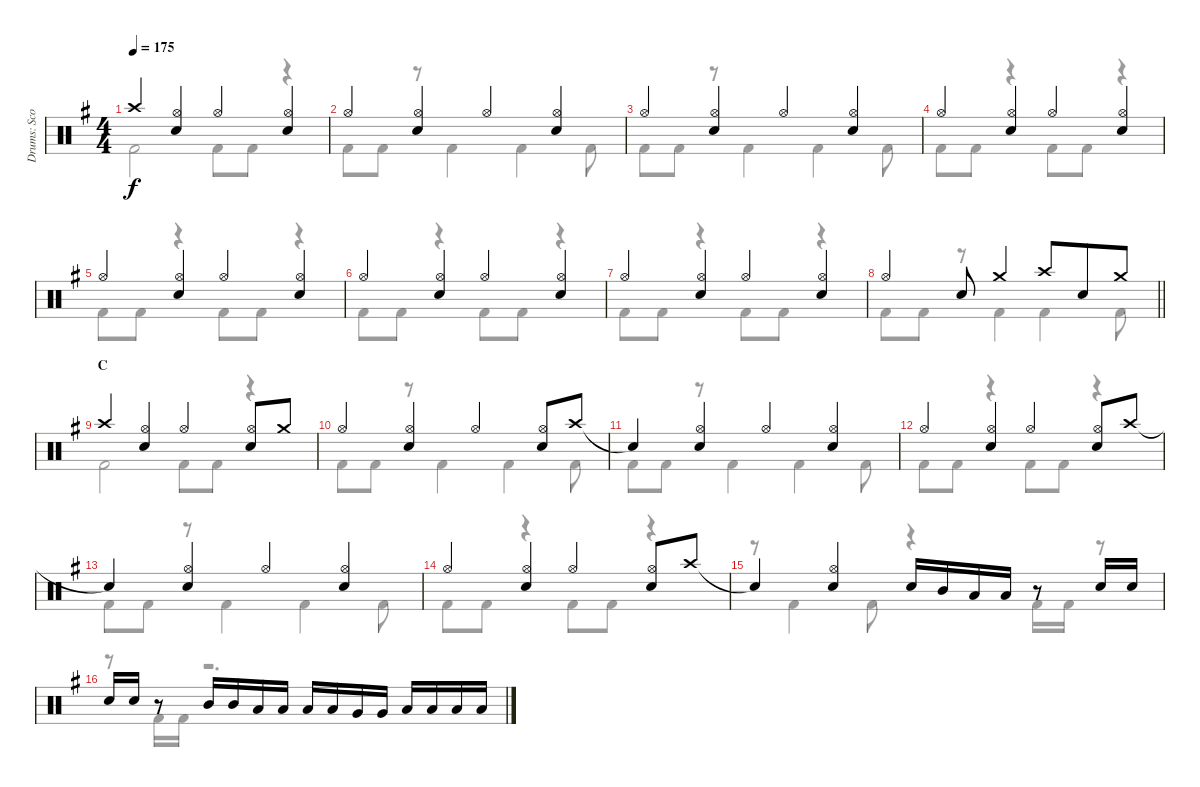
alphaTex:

\track ("Drums: Scott" "Drums: Sco") {instrument percussion}
\staff {score}
\articulation defaults
\voice
\ts (4 4)
\tempo 175
\clef neutral
\ks g "Crash high (hit)".4{dy f}
("Hi-Hat (open)" "Snare (hit) 2").4 "Hi-Hat (open)".4 ("Hi-Hat (open)" "Snare (hit) 2").4 |
"Hi-Hat (open)".4 ("Hi-Hat (open)" "Snare (hit) 2").4 "Hi-Hat (open)".4 ("Hi-Hat (open)" "Snare (hit) 2").4 |
"Hi-Hat (open)".4 ("Hi-Hat (open)" "Snare (hit) 2").4 "Hi-Hat (open)".4 ("Hi-Hat (open)" "Snare (hit) 2").4 |
"Hi-Hat (open)".4 ("Hi-Hat (open)" "Snare (hit) 2").4 "Hi-Hat (open)".4 ("Hi-Hat (open)" "Snare (hit) 2").4 |
"Hi-Hat (open)".4 ("Hi-Hat (open)" "Snare (hit) 2").4 "Hi-Hat (open)".4 ("Hi-Hat (open)" "Snare (hit) 2").4 |
"Hi-Hat (open)".4 ("Hi-Hat (open)" "Snare (hit) 2").4 "Hi-Hat (open)".4 ("Hi-Hat (open)" "Snare (hit) 2").4 |
"Hi-Hat (open)".4 ("Hi-Hat (open)" "Snare (hit) 2").4 "Hi-Hat (open)".4 ("Hi-Hat (open)" "Snare (hit) 2").4 |
\barLineRight lightlight "Hi-Hat (open)".4 "Snare (hit) 2".8 "Crash medium (hit)".4 "Crash high (hit)".8{beam merge} "Snare (hit) 2".8 "Crash medium (hit)".8
|
\section ("" "C")
"Crash high (hit)".4 ("Hi-Hat (open)" "Snare (hit) 2").4 "Hi-Hat (open)".4 ("Hi-Hat (open)" "Snare (hit) 2").8 "Crash medium (hit)".8 |
"Hi-Hat (open)".4 ("Hi-Hat (open)" "Snare (hit) 2").4 "Hi-Hat (open)".4 ("Hi-Hat (open)" "Snare (hit) 2").8 "Crash high (hit)".8 |
"Snare (hit)"{t}.4 ("Hi-Hat (open)" "Snare (hit) 2").4 "Hi-Hat (open)".4 ("Hi-Hat (open)" "Snare (hit) 2").4 |
"Hi-Hat (open)".4 ("Hi-Hat (open)" "Snare (hit) 2").4 "Hi-Hat (open)".4 ("Hi-Hat (open)" "Snare (hit) 2").8 "Crash high (hit)".8 |
"Snare (hit)"{t}.4 ("Hi-Hat (open)" "Snare (hit) 2").4 "Hi-Hat (open)".4 ("Hi-Hat (open)" "Snare (hit) 2").4 |
"Hi-Hat (open)".4 ("Hi-Hat (open)" "Snare (hit) 2").4 "Hi-Hat (open)".4 ("Hi-Hat (open)" "Snare (hit) 2").8 "Crash high (hit)".8 |
"Snare (hit)"{t}.4 ("Hi-Hat (open)" "Snare (hit) 2").4 "Snare (hit) 2".16 "Mid Tom (hit)".16 "Low Tom (hit)".16 "Low Tom (hit)".16 r.8 "Snare (hit) 2".16 "Snare (hit) 2".16 |
"Snare (hit) 2".16 "Snare (hit) 2".16 r.8 "Mid Tom (hit)".16{beam merge} "Mid Tom (hit)".16 "Low Tom (hit)".16 "Low Tom (hit)".16 "Low Tom (hit)".16 "Low Tom (hit)".16 "Very Low Tom (hit)".16 "Very Low Tom (hit)".16 "Low Floor Tom (hit)".16 "Low Floor Tom (hit)".16 "Low Floor Tom (hit)".16 "Low Floor Tom (hit)".16
\voice
\clef neutral
\ottava regular
\simile none
\ks g "Kick (hit) 2".2{dy f} "Kick (hit) 2".8 "Kick (hit) 2".8
r.4 |
"Kick (hit) 2".8 "Kick (hit) 2".8 r.8 "Kick (hit) 2".4 "Kick (hit) 2".4 "Kick (hit) 2".8 |
"Kick (hit) 2".8 "Kick (hit) 2".8 r.8 "Kick (hit) 2".4 "Kick (hit) 2".4 "Kick (hit) 2".8 |
"Kick (hit) 2".8 "Kick (hit) 2".8 r.4 "Kick (hit) 2".8 "Kick (hit) 2".8 r.4 |
"Kick (hit) 2".8 "Kick (hit) 2".8 r.4 "Kick (hit) 2".8 "Kick (hit) 2".8 r.4 |
"Kick (hit) 2".8 "Kick (hit) 2".8 r.4 "Kick (hit) 2".8 "Kick (hit) 2".8 r.4 |
"Kick (hit) 2".8 "Kick (hit) 2".8 r.4 "Kick (hit) 2".8 "Kick (hit) 2".8 r.4 |
\barLineRight lightlight "Kick (hit) 2".8 "Kick (hit) 2".8
r.8 "Kick (hit) 2".4 "Kick (hit) 2".4 "Kick (hit) 2".8 |
"Kick (hit) 2".2 "Kick (hit) 2".8 "Kick (hit) 2".8 r.4 |
"Kick (hit) 2".8 "Kick (hit) 2".8 r.8 "Kick (hit) 2".4 "Kick (hit) 2".4 "Kick (hit) 2".8 |
"Kick (hit) 2".8 "Kick (hit) 2".8 r.8 "Kick (hit) 2".4 "Kick (hit) 2".4 "Kick (hit) 2".8 |
"Kick (hit) 2".8 "Kick (hit) 2".8 r.4 "Kick (hit) 2".8 "Kick (hit) 2".8 r.4 |
"Kick (hit) 2".8 "Kick (hit) 2".8 r.8 "Kick (hit) 2".4 "Kick (hit) 2".4 "Kick (hit) 2".8 |
"Kick (hit) 2".8 "Kick (hit) 2".8 r.4 "Kick (hit) 2".8 "Kick (hit) 2".8 r.4 |
r.8 "Kick (hit) 2".4 "Kick (hit) 2".8 r.4 "Kick (hit) 2".16 "Kick (hit) 2".16 r.8 |
r.8 "Kick (hit) 2".16 "Kick (hit) 2".16 r.2{d}
